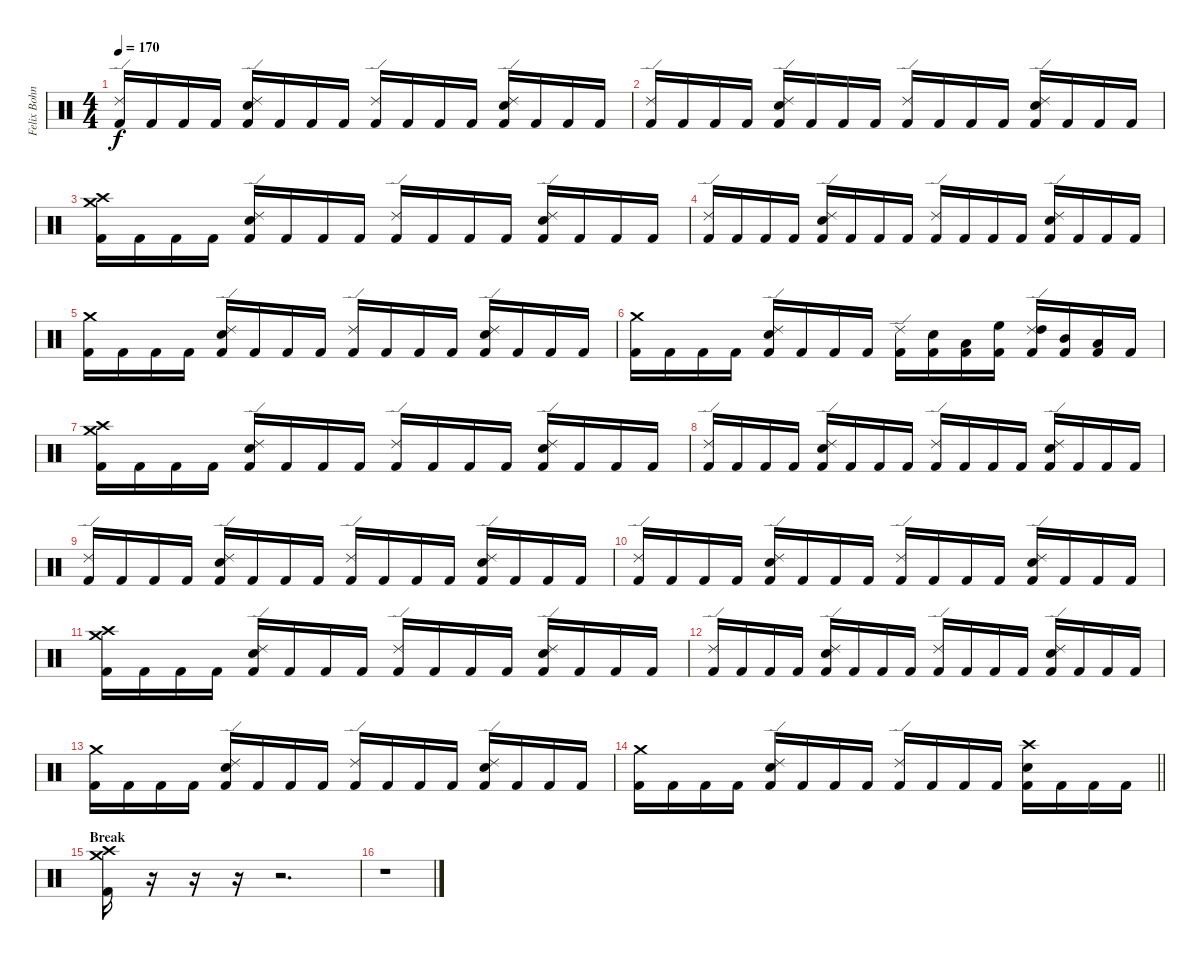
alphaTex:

\track ("Felix Bohnke - Drums" "Felix Bohn") {instrument percussion}
\staff {score}
\articulation defaults
\ts (4 4)
\tempo 170
\clef neutral
\ks c
("Ride (edge) 2" "Kick (hit) 2").16{dy f} "Kick (hit) 2".16 "Kick (hit) 2".16 "Kick (hit) 2".16 ("Ride (edge) 2" "Snare (hit) 2" "Kick (hit) 2").16 "Kick (hit) 2".16 "Kick (hit) 2".16 "Kick (hit) 2".16 ("Ride (edge) 2" "Kick (hit) 2").16 "Kick (hit) 2".16 "Kick (hit) 2".16 "Kick (hit) 2".16 ("Ride (edge) 2" "Snare (hit) 2" "Kick (hit) 2").16 "Kick (hit) 2".16 "Kick (hit) 2".16 "Kick (hit) 2".16 |
("Ride (edge) 2" "Kick (hit) 2").16 "Kick (hit) 2".16 "Kick (hit) 2".16 "Kick (hit) 2".16 ("Ride (edge) 2" "Snare (hit) 2" "Kick (hit) 2").16 "Kick (hit) 2".16 "Kick (hit) 2".16 "Kick (hit) 2".16 ("Ride (edge) 2" "Kick (hit) 2").16 "Kick (hit) 2".16 "Kick (hit) 2".16 "Kick (hit) 2".16 ("Ride (edge) 2" "Snare (hit) 2" "Kick (hit) 2").16 "Kick (hit) 2".16 "Kick (hit) 2".16 "Kick (hit) 2".16 |
("Crash high (hit)" "Crash medium (hit)" "Kick (hit) 2").16 "Kick (hit) 2".16 "Kick (hit) 2".16 "Kick (hit) 2".16 ("Ride (edge) 2" "Snare (hit) 2" "Kick (hit) 2").16 "Kick (hit) 2".16 "Kick (hit) 2".16 "Kick (hit) 2".16 ("Ride (edge) 2" "Kick (hit) 2").16 "Kick (hit) 2".16 "Kick (hit) 2".16 "Kick (hit) 2".16 ("Ride (edge) 2" "Snare (hit) 2" "Kick (hit) 2").16 "Kick (hit) 2".16 "Kick (hit) 2".16 "Kick (hit) 2".16 |
("Ride (edge) 2" "Kick (hit) 2").16 "Kick (hit) 2".16 "Kick (hit) 2".16 "Kick (hit) 2".16 ("Ride (edge) 2" "Snare (hit) 2" "Kick (hit) 2").16 "Kick (hit) 2".16 "Kick (hit) 2".16 "Kick (hit) 2".16 ("Ride (edge) 2" "Kick (hit) 2").16 "Kick (hit) 2".16 "Kick (hit) 2".16 "Kick (hit) 2".16 ("Ride (edge) 2" "Snare (hit) 2" "Kick (hit) 2").16 "Kick (hit) 2".16 "Kick (hit) 2".16 "Kick (hit) 2".16 |
("Crash medium (hit)" "Kick (hit) 2").16 "Kick (hit) 2".16 "Kick (hit) 2".16 "Kick (hit) 2".16 ("Ride (edge) 2" "Snare (hit) 2" "Kick (hit) 2").16 "Kick (hit) 2".16 "Kick (hit) 2".16 "Kick (hit) 2".16 ("Ride (edge) 2" "Kick (hit) 2").16 "Kick (hit) 2".16 "Kick (hit) 2".16 "Kick (hit) 2".16 ("Ride (edge) 2" "Snare (hit) 2" "Kick (hit) 2").16 "Kick (hit) 2".16 "Kick (hit) 2".16 "Kick (hit) 2".16 |
("Crash medium (hit)" "Kick (hit) 2").16 "Kick (hit) 2".16 "Kick (hit) 2".16 "Kick (hit) 2".16 ("Ride (edge) 2" "Snare (hit) 2" "Kick (hit) 2").16 "Kick (hit) 2".16 "Kick (hit) 2".16 "Kick (hit) 2".16 ("Ride (edge) 2" "Kick (hit) 2").16 ("Snare (hit) 2" "Kick (hit) 2").16 ("Low Tom (hit)" "Kick (hit) 2").16 ("High Floor Tom (hit)" "Kick (hit) 2").16 ("Ride (edge) 2" "High Tom (hit)" "Kick (hit) 2").16 ("Mid Tom (hit)" "Kick (hit) 2").16 ("Low Tom (hit)" "Kick (hit) 2").16 "Kick (hit) 2".16 |
("Crash high (hit)" "Crash medium (hit)" "Kick (hit) 2").16 "Kick (hit) 2".16 "Kick (hit) 2".16 "Kick (hit) 2".16 ("Ride (edge) 2" "Snare (hit) 2" "Kick (hit) 2").16 "Kick (hit) 2".16 "Kick (hit) 2".16 "Kick (hit) 2".16 ("Ride (edge) 2" "Kick (hit) 2").16 "Kick (hit) 2".16 "Kick (hit) 2".16 "Kick (hit) 2".16 ("Ride (edge) 2" "Snare (hit) 2" "Kick (hit) 2").16 "Kick (hit) 2".16 "Kick (hit) 2".16 "Kick (hit) 2".16 |
("Ride (edge) 2" "Kick (hit) 2").16 "Kick (hit) 2".16 "Kick (hit) 2".16 "Kick (hit) 2".16 ("Ride (edge) 2" "Snare (hit) 2" "Kick (hit) 2").16 "Kick (hit) 2".16 "Kick (hit) 2".16 "Kick (hit) 2".16 ("Ride (edge) 2" "Kick (hit) 2").16 "Kick (hit) 2".16 "Kick (hit) 2".16 "Kick (hit) 2".16 ("Ride (edge) 2" "Snare (hit) 2" "Kick (hit) 2").16 "Kick (hit) 2".16 "Kick (hit) 2".16 "Kick (hit) 2".16 |
("Ride (edge) 2" "Kick (hit) 2").16 "Kick (hit) 2".16 "Kick (hit) 2".16 "Kick (hit) 2".16 ("Ride (edge) 2" "Snare (hit) 2" "Kick (hit) 2").16 "Kick (hit) 2".16 "Kick (hit) 2".16 "Kick (hit) 2".16 ("Ride (edge) 2" "Kick (hit) 2").16 "Kick (hit) 2".16 "Kick (hit) 2".16 "Kick (hit) 2".16 ("Ride (edge) 2" "Snare (hit) 2" "Kick (hit) 2").16 "Kick (hit) 2".16 "Kick (hit) 2".16 "Kick (hit) 2".16 |
("Ride (edge) 2" "Kick (hit) 2").16 "Kick (hit) 2".16 "Kick (hit) 2".16 "Kick (hit) 2".16 ("Ride (edge) 2" "Snare (hit) 2" "Kick (hit) 2").16 "Kick (hit) 2".16 "Kick (hit) 2".16 "Kick (hit) 2".16 ("Ride (edge) 2" "Kick (hit) 2").16 "Kick (hit) 2".16 "Kick (hit) 2".16 "Kick (hit) 2".16 ("Ride (edge) 2" "Snare (hit) 2" "Kick (hit) 2").16 "Kick (hit) 2".16 "Kick (hit) 2".16 "Kick (hit) 2".16 |
("Crash high (hit)" "Crash medium (hit)" "Kick (hit) 2").16 "Kick (hit) 2".16 "Kick (hit) 2".16 "Kick (hit) 2".16 ("Ride (edge) 2" "Snare (hit) 2" "Kick (hit) 2").16 "Kick (hit) 2".16 "Kick (hit) 2".16 "Kick (hit) 2".16 ("Ride (edge) 2" "Kick (hit) 2").16 "Kick (hit) 2".16 "Kick (hit) 2".16 "Kick (hit) 2".16 ("Ride (edge) 2" "Snare (hit) 2" "Kick (hit) 2").16 "Kick (hit) 2".16 "Kick (hit) 2".16 "Kick (hit) 2".16 |
("Ride (edge) 2" "Kick (hit) 2").16 "Kick (hit) 2".16 "Kick (hit) 2".16 "Kick (hit) 2".16 ("Ride (edge) 2" "Snare (hit) 2" "Kick (hit) 2").16 "Kick (hit) 2".16 "Kick (hit) 2".16 "Kick (hit) 2".16 ("Ride (edge) 2" "Kick (hit) 2").16 "Kick (hit) 2".16 "Kick (hit) 2".16 "Kick (hit) 2".16 ("Ride (edge) 2" "Snare (hit) 2" "Kick (hit) 2").16 "Kick (hit) 2".16 "Kick (hit) 2".16 "Kick (hit) 2".16 |
("Crash medium (hit)" "Kick (hit) 2").16 "Kick (hit) 2".16 "Kick (hit) 2".16 "Kick (hit) 2".16 ("Ride (edge) 2" "Snare (hit) 2" "Kick (hit) 2").16 "Kick (hit) 2".16 "Kick (hit) 2".16 "Kick (hit) 2".16 ("Ride (edge) 2" "Kick (hit) 2").16 "Kick (hit) 2".16 "Kick (hit) 2".16 "Kick (hit) 2".16 ("Ride (edge) 2" "Snare (hit) 2" "Kick (hit) 2").16 "Kick (hit) 2".16 "Kick (hit) 2".16 "Kick (hit) 2".16 |
\barLineRight lightlight
("Crash medium (hit)" "Kick (hit) 2").16 "Kick (hit) 2".16 "Kick (hit) 2".16 "Kick (hit) 2".16 ("Ride (edge) 2" "Snare (hit) 2" "Kick (hit) 2").16 "Kick (hit) 2".16 "Kick (hit) 2".16 "Kick (hit) 2".16 ("Ride (edge) 2" "Kick (hit) 2").16 "Kick (hit) 2".16 "Kick (hit) 2".16 "Kick (hit) 2".16 ("Crash high (hit)" "Snare (hit) 2" "Kick (hit) 2").16 "Kick (hit) 2".16 "Kick (hit) 2".16 "Kick (hit) 2".16 |
\section ("" "Break")
("Crash medium (hit)" "Crash high (hit)" "Kick (hit) 2").16 r.16 r.16 r.16 r.2{d} |
r.1
